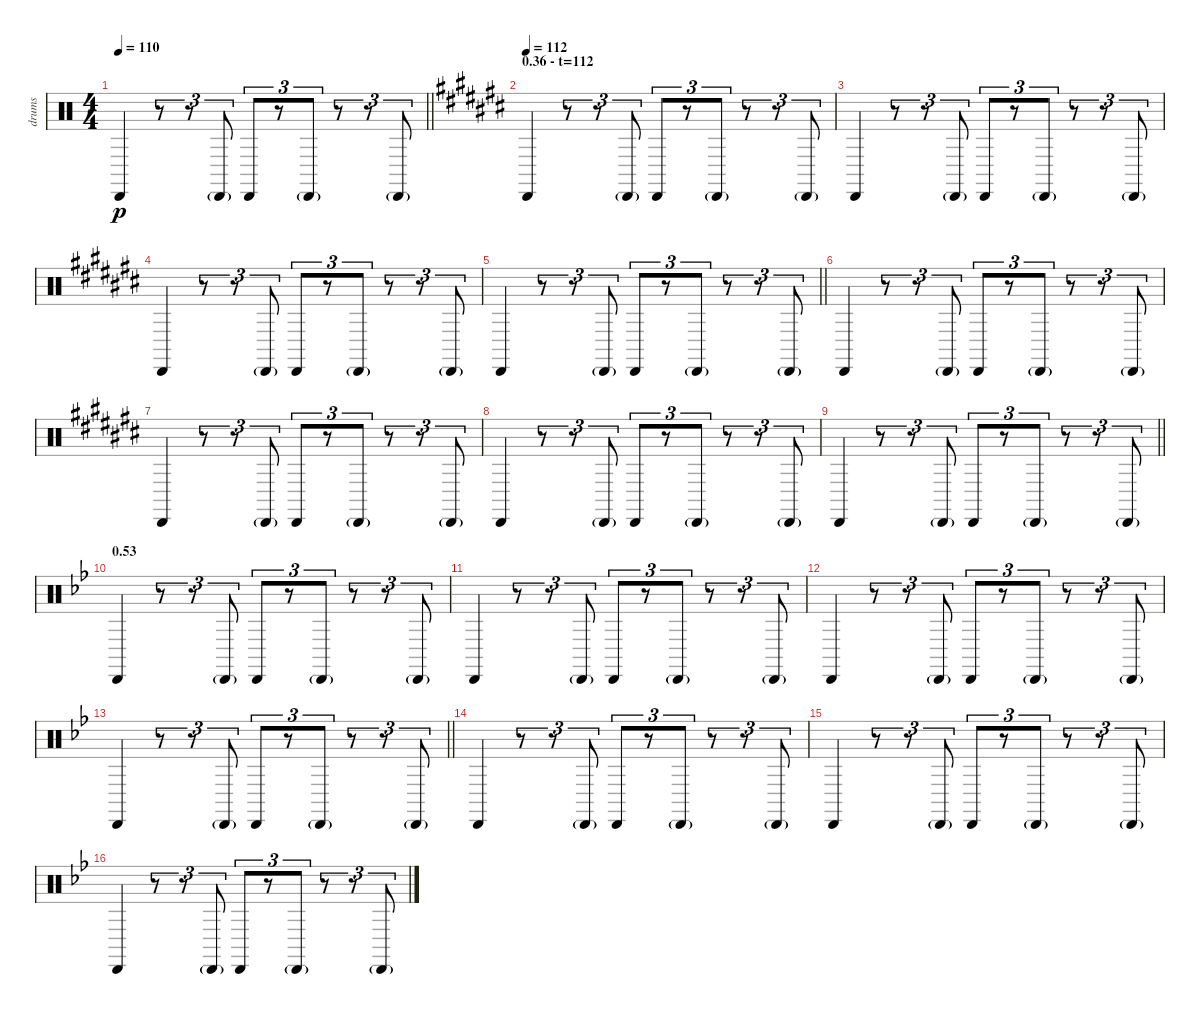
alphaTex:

\track ("drums" "drums") {instrument percussion}
\staff {score}
\articulation defaults
\ts (4 4)
\tempo 110
\clef neutral
\barLineRight lightlight
\ks c "Cabasa (hit)".4{dy p}
r.8{tu (3 2)} r.8{tu (3 2)} "Cabasa (hit)"{g}.8{tu (3 2)} "Cabasa (hit)".8{tu (3 2)} r.8{tu (3 2)} "Cabasa (hit)"{g}.8{tu (3 2)} r.8{tu (3 2)} r.8{tu (3 2)} "Cabasa (hit)"{g}.8{tu (3 2)} |
\section ("" "0.36 - t=112")
\tempo 112
\ks c# "Cabasa (hit)".4
r.8{tu (3 2)} r.8{tu (3 2)} "Cabasa (hit)"{g}.8{tu (3 2)} "Cabasa (hit)".8{tu (3 2)} r.8{tu (3 2)} "Cabasa (hit)"{g}.8{tu (3 2)} r.8{tu (3 2)} r.8{tu (3 2)} "Cabasa (hit)"{g}.8{tu (3 2)} |
"Cabasa (hit)".4 r.8{tu (3 2)} r.8{tu (3 2)} "Cabasa (hit)"{g}.8{tu (3 2)} "Cabasa (hit)".8{tu (3 2)} r.8{tu (3 2)} "Cabasa (hit)"{g}.8{tu (3 2)} r.8{tu (3 2)} r.8{tu (3 2)} "Cabasa (hit)"{g}.8{tu (3 2)} |
"Cabasa (hit)".4 r.8{tu (3 2)} r.8{tu (3 2)} "Cabasa (hit)"{g}.8{tu (3 2)} "Cabasa (hit)".8{tu (3 2)} r.8{tu (3 2)} "Cabasa (hit)"{g}.8{tu (3 2)} r.8{tu (3 2)} r.8{tu (3 2)} "Cabasa (hit)"{g}.8{tu (3 2)} |
\barLineRight lightlight "Cabasa (hit)".4
r.8{tu (3 2)} r.8{tu (3 2)} "Cabasa (hit)"{g}.8{tu (3 2)} "Cabasa (hit)".8{tu (3 2)} r.8{tu (3 2)} "Cabasa (hit)"{g}.8{tu (3 2)} r.8{tu (3 2)} r.8{tu (3 2)} "Cabasa (hit)"{g}.8{tu (3 2)} |
"Cabasa (hit)".4 r.8{tu (3 2)} r.8{tu (3 2)} "Cabasa (hit)"{g}.8{tu (3 2)} "Cabasa (hit)".8{tu (3 2)} r.8{tu (3 2)} "Cabasa (hit)"{g}.8{tu (3 2)} r.8{tu (3 2)} r.8{tu (3 2)} "Cabasa (hit)"{g}.8{tu (3 2)} |
"Cabasa (hit)".4 r.8{tu (3 2)} r.8{tu (3 2)} "Cabasa (hit)"{g}.8{tu (3 2)} "Cabasa (hit)".8{tu (3 2)} r.8{tu (3 2)} "Cabasa (hit)"{g}.8{tu (3 2)} r.8{tu (3 2)} r.8{tu (3 2)} "Cabasa (hit)"{g}.8{tu (3 2)} |
"Cabasa (hit)".4 r.8{tu (3 2)} r.8{tu (3 2)} "Cabasa (hit)"{g}.8{tu (3 2)} "Cabasa (hit)".8{tu (3 2)} r.8{tu (3 2)} "Cabasa (hit)"{g}.8{tu (3 2)} r.8{tu (3 2)} r.8{tu (3 2)} "Cabasa (hit)"{g}.8{tu (3 2)} |
\barLineRight lightlight "Cabasa (hit)".4
r.8{tu (3 2)} r.8{tu (3 2)} "Cabasa (hit)"{g}.8{tu (3 2)} "Cabasa (hit)".8{tu (3 2)} r.8{tu (3 2)} "Cabasa (hit)"{g}.8{tu (3 2)} r.8{tu (3 2)} r.8{tu (3 2)} "Cabasa (hit)"{g}.8{tu (3 2)} |
\section ("" "0.53")
\ks bb "Cabasa (hit)".4
r.8{tu (3 2)} r.8{tu (3 2)} "Cabasa (hit)"{g}.8{tu (3 2)} "Cabasa (hit)".8{tu (3 2)} r.8{tu (3 2)} "Cabasa (hit)"{g}.8{tu (3 2)} r.8{tu (3 2)} r.8{tu (3 2)} "Cabasa (hit)"{g}.8{tu (3 2)} |
"Cabasa (hit)".4 r.8{tu (3 2)} r.8{tu (3 2)} "Cabasa (hit)"{g}.8{tu (3 2)} "Cabasa (hit)".8{tu (3 2)} r.8{tu (3 2)} "Cabasa (hit)"{g}.8{tu (3 2)} r.8{tu (3 2)} r.8{tu (3 2)} "Cabasa (hit)"{g}.8{tu (3 2)} |
"Cabasa (hit)".4 r.8{tu (3 2)} r.8{tu (3 2)} "Cabasa (hit)"{g}.8{tu (3 2)} "Cabasa (hit)".8{tu (3 2)} r.8{tu (3 2)} "Cabasa (hit)"{g}.8{tu (3 2)} r.8{tu (3 2)} r.8{tu (3 2)} "Cabasa (hit)"{g}.8{tu (3 2)} |
\barLineRight lightlight "Cabasa (hit)".4
r.8{tu (3 2)} r.8{tu (3 2)} "Cabasa (hit)"{g}.8{tu (3 2)} "Cabasa (hit)".8{tu (3 2)} r.8{tu (3 2)} "Cabasa (hit)"{g}.8{tu (3 2)} r.8{tu (3 2)} r.8{tu (3 2)} "Cabasa (hit)"{g}.8{tu (3 2)} |
"Cabasa (hit)".4 r.8{tu (3 2)} r.8{tu (3 2)} "Cabasa (hit)"{g}.8{tu (3 2)} "Cabasa (hit)".8{tu (3 2)} r.8{tu (3 2)} "Cabasa (hit)"{g}.8{tu (3 2)} r.8{tu (3 2)} r.8{tu (3 2)} "Cabasa (hit)"{g}.8{tu (3 2)} |
"Cabasa (hit)".4 r.8{tu (3 2)} r.8{tu (3 2)} "Cabasa (hit)"{g}.8{tu (3 2)} "Cabasa (hit)".8{tu (3 2)} r.8{tu (3 2)} "Cabasa (hit)"{g}.8{tu (3 2)} r.8{tu (3 2)} r.8{tu (3 2)} "Cabasa (hit)"{g}.8{tu (3 2)} |
"Cabasa (hit)".4 r.8{tu (3 2)} r.8{tu (3 2)} "Cabasa (hit)"{g}.8{tu (3 2)} "Cabasa (hit)".8{tu (3 2)} r.8{tu (3 2)} "Cabasa (hit)"{g}.8{tu (3 2)} r.8{tu (3 2)} r.8{tu (3 2)} "Cabasa (hit)"{g}.8{tu (3 2)}
